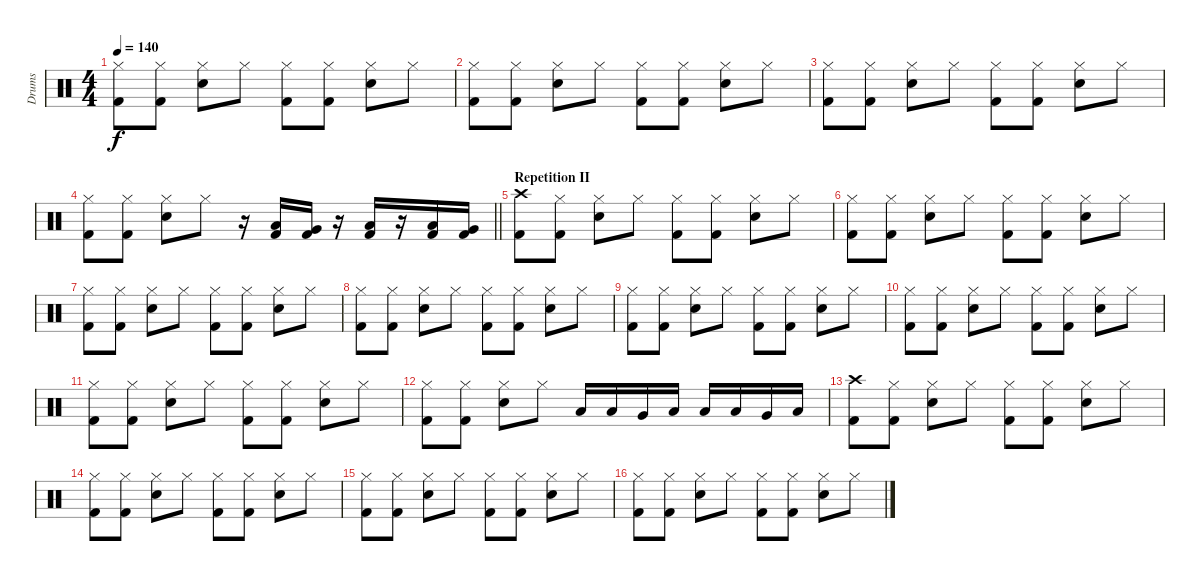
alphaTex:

\track ("Drums" "Drums") {instrument percussion}
\staff {score}
\articulation defaults
\ts (4 4)
\tempo 140
\clef neutral
\ks c
("Hi-Hat (closed)" "Kick (hit) 2").8{dy f} ("Hi-Hat (closed)" "Kick (hit) 2").8 ("Hi-Hat (closed)" "Snare (hit) 2").8 "Hi-Hat (closed)".8 ("Hi-Hat (closed)" "Kick (hit) 2").8 ("Hi-Hat (closed)" "Kick (hit) 2").8 ("Hi-Hat (closed)" "Snare (hit) 2").8 "Hi-Hat (closed)".8 |
("Hi-Hat (closed)" "Kick (hit) 2").8 ("Hi-Hat (closed)" "Kick (hit) 2").8 ("Hi-Hat (closed)" "Snare (hit) 2").8 "Hi-Hat (closed)".8 ("Hi-Hat (closed)" "Kick (hit) 2").8 ("Hi-Hat (closed)" "Kick (hit) 2").8 ("Hi-Hat (closed)" "Snare (hit) 2").8 "Hi-Hat (closed)".8 |
("Hi-Hat (closed)" "Kick (hit) 2").8 ("Hi-Hat (closed)" "Kick (hit) 2").8 ("Hi-Hat (closed)" "Snare (hit) 2").8 "Hi-Hat (closed)".8 ("Hi-Hat (closed)" "Kick (hit) 2").8 ("Hi-Hat (closed)" "Kick (hit) 2").8 ("Hi-Hat (closed)" "Snare (hit) 2").8 "Hi-Hat (closed)".8 |
\barLineRight lightlight
("Hi-Hat (closed)" "Kick (hit) 2").8 ("Hi-Hat (closed)" "Kick (hit) 2").8 ("Hi-Hat (closed)" "Snare (hit) 2").8 "Hi-Hat (closed)".8 r.16 ("Low Tom (hit)" "Kick (hit) 2").16 ("Very Low Tom (hit)" "Kick (hit) 2").16 r.16 ("Low Tom (hit)" "Kick (hit) 2").16 r.16 ("Low Tom (hit)" "Kick (hit) 2").16 ("Very Low Tom (hit)" "Kick (hit) 2").16 |
\section ("" "Repetition II")
("Crash high (hit)" "Kick (hit) 2").8 ("Hi-Hat (closed)" "Kick (hit) 2").8 ("Hi-Hat (closed)" "Snare (hit) 2").8 "Hi-Hat (closed)".8 ("Hi-Hat (closed)" "Kick (hit) 2").8 ("Hi-Hat (closed)" "Kick (hit) 2").8 ("Hi-Hat (closed)" "Snare (hit) 2").8 "Hi-Hat (closed)".8 |
("Hi-Hat (closed)" "Kick (hit) 2").8 ("Hi-Hat (closed)" "Kick (hit) 2").8 ("Hi-Hat (closed)" "Snare (hit) 2").8 "Hi-Hat (closed)".8 ("Hi-Hat (closed)" "Kick (hit) 2").8 ("Hi-Hat (closed)" "Kick (hit) 2").8 ("Hi-Hat (closed)" "Snare (hit) 2").8 "Hi-Hat (closed)".8 |
("Hi-Hat (closed)" "Kick (hit) 2").8 ("Hi-Hat (closed)" "Kick (hit) 2").8 ("Hi-Hat (closed)" "Snare (hit) 2").8 "Hi-Hat (closed)".8 ("Hi-Hat (closed)" "Kick (hit) 2").8 ("Hi-Hat (closed)" "Kick (hit) 2").8 ("Hi-Hat (closed)" "Snare (hit) 2").8 "Hi-Hat (closed)".8 |
("Hi-Hat (closed)" "Kick (hit) 2").8 ("Hi-Hat (closed)" "Kick (hit) 2").8 ("Hi-Hat (closed)" "Snare (hit) 2").8 "Hi-Hat (closed)".8 ("Hi-Hat (closed)" "Kick (hit) 2").8 ("Hi-Hat (closed)" "Kick (hit) 2").8 ("Hi-Hat (closed)" "Snare (hit) 2").8 "Hi-Hat (closed)".8 |
("Hi-Hat (closed)" "Kick (hit) 2").8 ("Hi-Hat (closed)" "Kick (hit) 2").8 ("Hi-Hat (closed)" "Snare (hit) 2").8 "Hi-Hat (closed)".8 ("Hi-Hat (closed)" "Kick (hit) 2").8 ("Hi-Hat (closed)" "Kick (hit) 2").8 ("Hi-Hat (closed)" "Snare (hit) 2").8 "Hi-Hat (closed)".8 |
("Hi-Hat (closed)" "Kick (hit) 2").8 ("Hi-Hat (closed)" "Kick (hit) 2").8 ("Hi-Hat (closed)" "Snare (hit) 2").8 "Hi-Hat (closed)".8 ("Hi-Hat (closed)" "Kick (hit) 2").8 ("Hi-Hat (closed)" "Kick (hit) 2").8 ("Hi-Hat (closed)" "Snare (hit) 2").8 "Hi-Hat (closed)".8 |
("Hi-Hat (closed)" "Kick (hit) 2").8 ("Hi-Hat (closed)" "Kick (hit) 2").8 ("Hi-Hat (closed)" "Snare (hit) 2").8 "Hi-Hat (closed)".8 ("Hi-Hat (closed)" "Kick (hit) 2").8 ("Hi-Hat (closed)" "Kick (hit) 2").8 ("Hi-Hat (closed)" "Snare (hit) 2").8 "Hi-Hat (closed)".8 |
("Hi-Hat (closed)" "Kick (hit) 2").8 ("Hi-Hat (closed)" "Kick (hit) 2").8 ("Hi-Hat (closed)" "Snare (hit) 2").8 "Hi-Hat (closed)".8 "Low Tom (hit)".16 "Low Tom (hit)".16 "Very Low Tom (hit)".16 "Low Floor Tom (hit)".16 "Low Tom (hit)".16 "Low Tom (hit)".16 "Very Low Tom (hit)".16 "Low Floor Tom (hit)".16 |
("Crash high (hit)" "Kick (hit) 2").8 ("Hi-Hat (closed)" "Kick (hit) 2").8 ("Hi-Hat (closed)" "Snare (hit) 2").8 "Hi-Hat (closed)".8 ("Hi-Hat (closed)" "Kick (hit) 2").8 ("Hi-Hat (closed)" "Kick (hit) 2").8 ("Hi-Hat (closed)" "Snare (hit) 2").8 "Hi-Hat (closed)".8 |
("Hi-Hat (closed)" "Kick (hit) 2").8 ("Hi-Hat (closed)" "Kick (hit) 2").8 ("Hi-Hat (closed)" "Snare (hit) 2").8 "Hi-Hat (closed)".8 ("Hi-Hat (closed)" "Kick (hit) 2").8 ("Hi-Hat (closed)" "Kick (hit) 2").8 ("Hi-Hat (closed)" "Snare (hit) 2").8 "Hi-Hat (closed)".8 |
("Hi-Hat (closed)" "Kick (hit) 2").8 ("Hi-Hat (closed)" "Kick (hit) 2").8 ("Hi-Hat (closed)" "Snare (hit) 2").8 "Hi-Hat (closed)".8 ("Hi-Hat (closed)" "Kick (hit) 2").8 ("Hi-Hat (closed)" "Kick (hit) 2").8 ("Hi-Hat (closed)" "Snare (hit) 2").8 "Hi-Hat (closed)".8 |
("Hi-Hat (closed)" "Kick (hit) 2").8 ("Hi-Hat (closed)" "Kick (hit) 2").8 ("Hi-Hat (closed)" "Snare (hit) 2").8 "Hi-Hat (closed)".8 ("Hi-Hat (closed)" "Kick (hit) 2").8 ("Hi-Hat (closed)" "Kick (hit) 2").8 ("Hi-Hat (closed)" "Snare (hit) 2").8 "Hi-Hat (closed)".8
